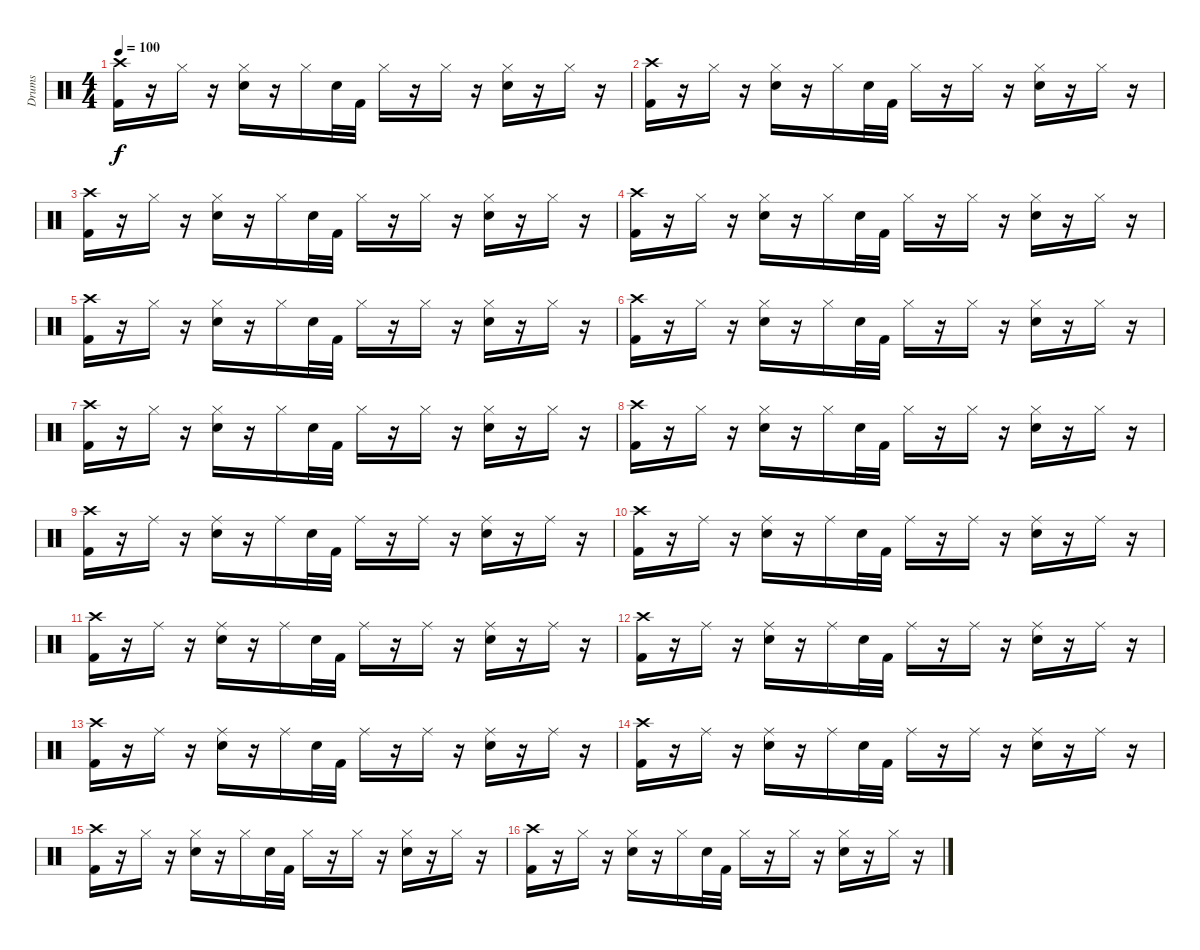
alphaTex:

\track ("Drums" "Drums") {instrument percussion}
\staff {score}
\articulation defaults
\ts (4 4)
\tempo 100
\clef neutral
\ks c
("Crash high (hit)" "Kick (hit) 2").16{dy f} r.16 "Hi-Hat (closed)".16 r.16 ("Hi-Hat (closed)" "Snare (hit) 2").16 r.16 "Hi-Hat (closed)".16 "Snare (hit) 2".32 "Kick (hit) 2".32 "Hi-Hat (closed)".16 r.16 "Hi-Hat (closed)".16 r.16 ("Hi-Hat (closed)" "Snare (hit) 2").16 r.16 "Hi-Hat (closed)".16 r.16 |
("Crash high (hit)" "Kick (hit) 2").16 r.16 "Hi-Hat (closed)".16 r.16 ("Hi-Hat (closed)" "Snare (hit) 2").16 r.16 "Hi-Hat (closed)".16 "Snare (hit) 2".32 "Kick (hit) 2".32 "Hi-Hat (closed)".16 r.16 "Hi-Hat (closed)".16 r.16 ("Hi-Hat (closed)" "Snare (hit) 2").16 r.16 "Hi-Hat (closed)".16 r.16 |
("Crash high (hit)" "Kick (hit) 2").16 r.16 "Hi-Hat (closed)".16 r.16 ("Hi-Hat (closed)" "Snare (hit) 2").16 r.16 "Hi-Hat (closed)".16 "Snare (hit) 2".32 "Kick (hit) 2".32 "Hi-Hat (closed)".16 r.16 "Hi-Hat (closed)".16 r.16 ("Hi-Hat (closed)" "Snare (hit) 2").16 r.16 "Hi-Hat (closed)".16 r.16 |
("Crash high (hit)" "Kick (hit) 2").16 r.16 "Hi-Hat (closed)".16 r.16 ("Hi-Hat (closed)" "Snare (hit) 2").16 r.16 "Hi-Hat (closed)".16 "Snare (hit) 2".32 "Kick (hit) 2".32 "Hi-Hat (closed)".16 r.16 "Hi-Hat (closed)".16 r.16 ("Hi-Hat (closed)" "Snare (hit) 2").16 r.16 "Hi-Hat (closed)".16 r.16 |
("Crash high (hit)" "Kick (hit) 2").16 r.16 "Hi-Hat (closed)".16 r.16 ("Hi-Hat (closed)" "Snare (hit) 2").16 r.16 "Hi-Hat (closed)".16 "Snare (hit) 2".32 "Kick (hit) 2".32 "Hi-Hat (closed)".16 r.16 "Hi-Hat (closed)".16 r.16 ("Hi-Hat (closed)" "Snare (hit) 2").16 r.16 "Hi-Hat (closed)".16 r.16 |
("Crash high (hit)" "Kick (hit) 2").16 r.16 "Hi-Hat (closed)".16 r.16 ("Hi-Hat (closed)" "Snare (hit) 2").16 r.16 "Hi-Hat (closed)".16 "Snare (hit) 2".32 "Kick (hit) 2".32 "Hi-Hat (closed)".16 r.16 "Hi-Hat (closed)".16 r.16 ("Hi-Hat (closed)" "Snare (hit) 2").16 r.16 "Hi-Hat (closed)".16 r.16 |
("Crash high (hit)" "Kick (hit) 2").16 r.16 "Hi-Hat (closed)".16 r.16 ("Hi-Hat (closed)" "Snare (hit) 2").16 r.16 "Hi-Hat (closed)".16 "Snare (hit) 2".32 "Kick (hit) 2".32 "Hi-Hat (closed)".16 r.16 "Hi-Hat (closed)".16 r.16 ("Hi-Hat (closed)" "Snare (hit) 2").16 r.16 "Hi-Hat (closed)".16 r.16 |
("Crash high (hit)" "Kick (hit) 2").16 r.16 "Hi-Hat (closed)".16 r.16 ("Hi-Hat (closed)" "Snare (hit) 2").16 r.16 "Hi-Hat (closed)".16 "Snare (hit) 2".32 "Kick (hit) 2".32 "Hi-Hat (closed)".16 r.16 "Hi-Hat (closed)".16 r.16 ("Hi-Hat (closed)" "Snare (hit) 2").16 r.16 "Hi-Hat (closed)".16 r.16 |
("Crash high (hit)" "Kick (hit) 2").16 r.16 "Ride (middle)".16 r.16 ("Ride (middle)" "Snare (hit) 2").16 r.16 "Ride (middle)".16 "Snare (hit) 2".32 "Kick (hit) 2".32 "Ride (middle)".16 r.16 "Ride (middle)".16 r.16 ("Ride (middle)" "Snare (hit) 2").16 r.16 "Ride (middle)".16 r.16 |
("Crash high (hit)" "Kick (hit) 2").16 r.16 "Ride (middle)".16 r.16 ("Ride (middle)" "Snare (hit) 2").16 r.16 "Ride (middle)".16 "Snare (hit) 2".32 "Kick (hit) 2".32 "Ride (middle)".16 r.16 "Ride (middle)".16 r.16 ("Ride (middle)" "Snare (hit) 2").16 r.16 "Ride (middle)".16 r.16 |
("Crash high (hit)" "Kick (hit) 2").16 r.16 "Ride (middle)".16 r.16 ("Ride (middle)" "Snare (hit) 2").16 r.16 "Ride (middle)".16 "Snare (hit) 2".32 "Kick (hit) 2".32 "Ride (middle)".16 r.16 "Ride (middle)".16 r.16 ("Ride (middle)" "Snare (hit) 2").16 r.16 "Ride (middle)".16 r.16 |
("Crash high (hit)" "Kick (hit) 2").16 r.16 "Ride (middle)".16 r.16 ("Ride (middle)" "Snare (hit) 2").16 r.16 "Ride (middle)".16 "Snare (hit) 2".32 "Kick (hit) 2".32 "Ride (middle)".16 r.16 "Ride (middle)".16 r.16 ("Ride (middle)" "Snare (hit) 2").16 r.16 "Ride (middle)".16 r.16 |
("Crash high (hit)" "Kick (hit) 2").16 r.16 "Ride (middle)".16 r.16 ("Ride (middle)" "Snare (hit) 2").16 r.16 "Ride (middle)".16 "Snare (hit) 2".32 "Kick (hit) 2".32 "Ride (middle)".16 r.16 "Ride (middle)".16 r.16 ("Ride (middle)" "Snare (hit) 2").16 r.16 "Ride (middle)".16 r.16 |
("Crash high (hit)" "Kick (hit) 2").16 r.16 "Ride (middle)".16 r.16 ("Ride (middle)" "Snare (hit) 2").16 r.16 "Ride (middle)".16 "Snare (hit) 2".32 "Kick (hit) 2".32 "Ride (middle)".16 r.16 "Ride (middle)".16 r.16 ("Ride (middle)" "Snare (hit) 2").16 r.16 "Ride (middle)".16 r.16 |
("Crash high (hit)" "Kick (hit) 2").16 r.16 "Hi-Hat (closed)".16 r.16 ("Hi-Hat (closed)" "Snare (hit) 2").16 r.16 "Hi-Hat (closed)".16 "Snare (hit) 2".32 "Kick (hit) 2".32 "Hi-Hat (closed)".16 r.16 "Hi-Hat (closed)".16 r.16 ("Hi-Hat (closed)" "Snare (hit) 2").16 r.16 "Hi-Hat (closed)".16 r.16 |
("Crash high (hit)" "Kick (hit) 2").16 r.16 "Hi-Hat (closed)".16 r.16 ("Hi-Hat (closed)" "Snare (hit) 2").16 r.16 "Hi-Hat (closed)".16 "Snare (hit) 2".32 "Kick (hit) 2".32 "Hi-Hat (closed)".16 r.16 "Hi-Hat (closed)".16 r.16 ("Hi-Hat (closed)" "Snare (hit) 2").16 r.16 "Hi-Hat (closed)".16 r.16
